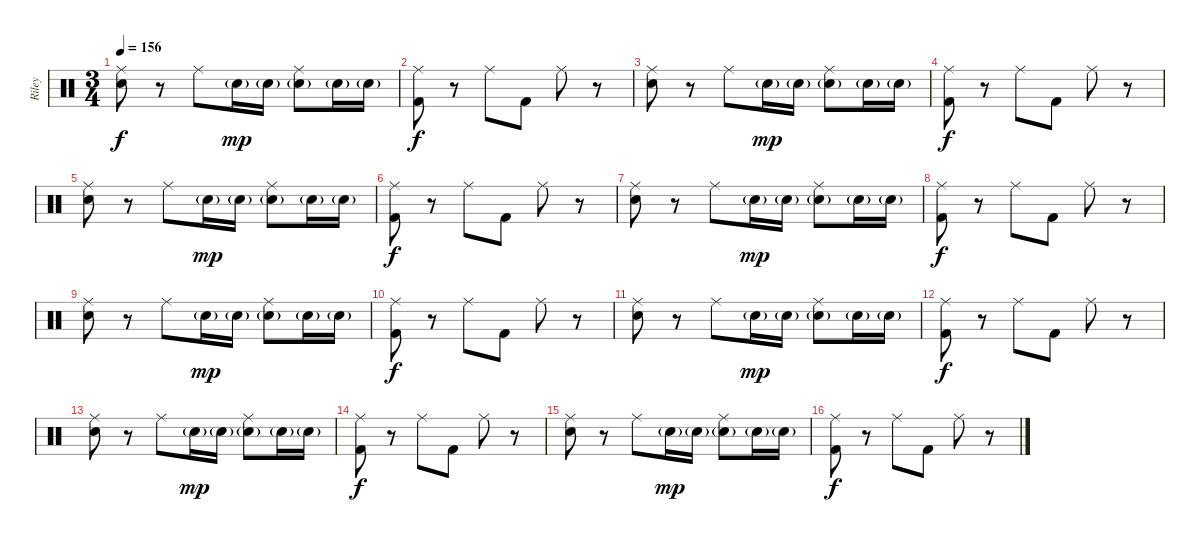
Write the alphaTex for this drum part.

\track ("Riley" "Riley") {instrument percussion}
\staff {score}
\articulation defaults
\ts (3 4)
\tempo 156
\clef neutral
\ks c
("Ride (middle)" "Electric Snare (hit)").8{dy f} r.8 "Ride (middle)".8 "Electric Snare (hit)"{g}.16{dy mp} "Electric Snare (hit)"{g}.16 ("Ride (middle)" "Electric Snare (hit)"{g}).8 "Electric Snare (hit)"{g}.16 "Electric Snare (hit)"{g}.16 |
("Ride (middle)" "Kick (hit) 2").8{dy f} r.8 "Ride (middle)".8 "Kick (hit) 2".8 "Ride (middle)".8 r.8 |
("Ride (middle)" "Electric Snare (hit)").8 r.8 "Ride (middle)".8 "Electric Snare (hit)"{g}.16{dy mp} "Electric Snare (hit)"{g}.16 ("Ride (middle)" "Electric Snare (hit)"{g}).8 "Electric Snare (hit)"{g}.16 "Electric Snare (hit)"{g}.16 |
("Ride (middle)" "Kick (hit) 2").8{dy f} r.8 "Ride (middle)".8 "Kick (hit) 2".8 "Ride (middle)".8 r.8 |
("Ride (middle)" "Electric Snare (hit)").8 r.8 "Ride (middle)".8 "Electric Snare (hit)"{g}.16{dy mp} "Electric Snare (hit)"{g}.16 ("Ride (middle)" "Electric Snare (hit)"{g}).8 "Electric Snare (hit)"{g}.16 "Electric Snare (hit)"{g}.16 |
("Ride (middle)" "Kick (hit) 2").8{dy f} r.8 "Ride (middle)".8 "Kick (hit) 2".8 "Ride (middle)".8 r.8 |
("Ride (middle)" "Electric Snare (hit)").8 r.8 "Ride (middle)".8 "Electric Snare (hit)"{g}.16{dy mp} "Electric Snare (hit)"{g}.16 ("Ride (middle)" "Electric Snare (hit)"{g}).8 "Electric Snare (hit)"{g}.16 "Electric Snare (hit)"{g}.16 |
("Ride (middle)" "Kick (hit) 2").8{dy f} r.8 "Ride (middle)".8 "Kick (hit) 2".8 "Ride (middle)".8 r.8 |
("Ride (middle)" "Electric Snare (hit)").8 r.8 "Ride (middle)".8 "Electric Snare (hit)"{g}.16{dy mp} "Electric Snare (hit)"{g}.16 ("Ride (middle)" "Electric Snare (hit)"{g}).8 "Electric Snare (hit)"{g}.16 "Electric Snare (hit)"{g}.16 |
("Ride (middle)" "Kick (hit) 2").8{dy f} r.8 "Ride (middle)".8 "Kick (hit) 2".8 "Ride (middle)".8 r.8 |
("Ride (middle)" "Electric Snare (hit)").8 r.8 "Ride (middle)".8 "Electric Snare (hit)"{g}.16{dy mp} "Electric Snare (hit)"{g}.16 ("Ride (middle)" "Electric Snare (hit)"{g}).8 "Electric Snare (hit)"{g}.16 "Electric Snare (hit)"{g}.16 |
("Ride (middle)" "Kick (hit) 2").8{dy f} r.8 "Ride (middle)".8 "Kick (hit) 2".8 "Ride (middle)".8 r.8 |
("Ride (middle)" "Electric Snare (hit)").8 r.8 "Ride (middle)".8 "Electric Snare (hit)"{g}.16{dy mp} "Electric Snare (hit)"{g}.16 ("Ride (middle)" "Electric Snare (hit)"{g}).8 "Electric Snare (hit)"{g}.16 "Electric Snare (hit)"{g}.16 |
("Ride (middle)" "Kick (hit) 2").8{dy f} r.8 "Ride (middle)".8 "Kick (hit) 2".8 "Ride (middle)".8 r.8 |
("Ride (middle)" "Electric Snare (hit)").8 r.8 "Ride (middle)".8 "Electric Snare (hit)"{g}.16{dy mp} "Electric Snare (hit)"{g}.16 ("Ride (middle)" "Electric Snare (hit)"{g}).8 "Electric Snare (hit)"{g}.16 "Electric Snare (hit)"{g}.16 |
("Ride (middle)" "Kick (hit) 2").8{dy f} r.8 "Ride (middle)".8 "Kick (hit) 2".8 "Ride (middle)".8 r.8
